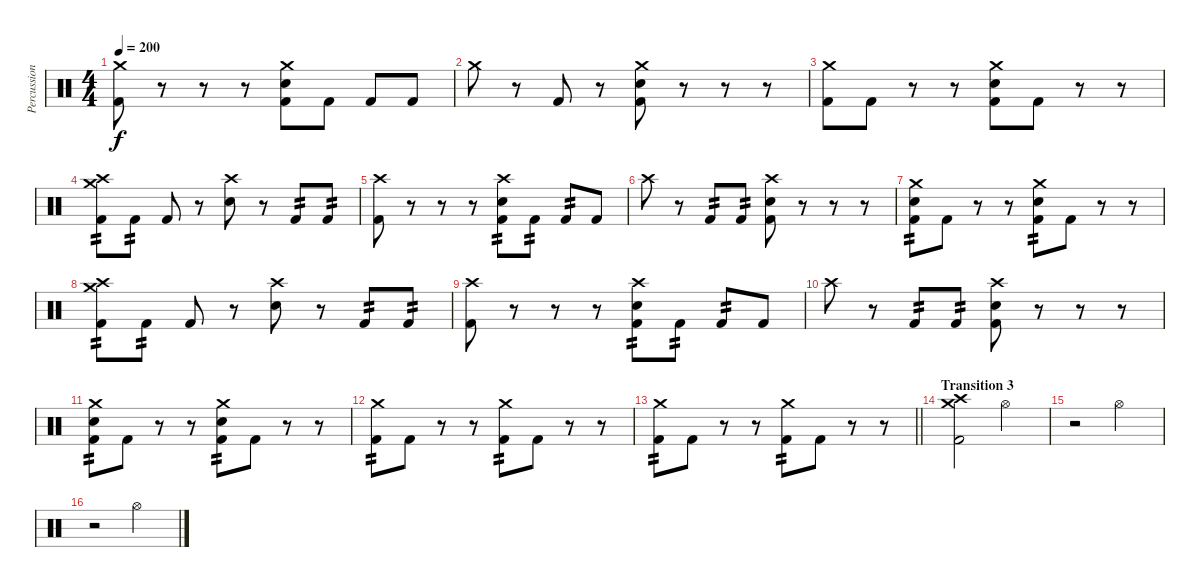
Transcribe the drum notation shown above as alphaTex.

\track ("Percussion" "Percussion") {instrument percussion}
\staff {score}
\articulation defaults
\ts (4 4)
\tempo 200
\clef neutral
\ks c
("Crash medium (hit)" "Kick (hit) 2").8{dy f} r.8 r.8 r.8 ("Crash medium (hit)" "Electric Snare (hit)" "Kick (hit) 2").8 "Kick (hit) 2".8 "Kick (hit) 2".8 "Kick (hit) 2".8 |
"Crash medium (hit)".8 r.8 "Kick (hit) 2".8 r.8 ("Crash medium (hit)" "Electric Snare (hit)" "Kick (hit) 2").8 r.8 r.8 r.8 |
("Crash medium (hit)" "Kick (hit) 2").8 "Kick (hit) 2".8 r.8 r.8 ("Crash medium (hit)" "Electric Snare (hit)" "Kick (hit) 2").8 "Kick (hit) 2".8 r.8 r.8 |
("Crash medium (hit)" "Crash high (hit)" "Kick (hit) 2").8{tp 2} "Kick (hit) 2".8{tp 2} "Kick (hit) 2".8 r.8 ("Crash high (hit)" "Electric Snare (hit)").8 r.8 "Kick (hit) 2".8{tp 2} "Kick (hit) 2".8{tp 2} |
("Crash high (hit)" "Kick (hit) 2").8 r.8 r.8 r.8 ("Crash high (hit)" "Electric Snare (hit)" "Kick (hit) 2").8{tp 2} "Kick (hit) 2".8{tp 2} "Kick (hit) 2".8{tp 2} "Kick (hit) 2".8 |
"Crash high (hit)".8 r.8 "Kick (hit) 2".8{tp 2} "Kick (hit) 2".8{tp 2} ("Crash high (hit)" "Electric Snare (hit)" "Kick (hit) 2").8 r.8 r.8 r.8 |
("Crash medium (hit)" "Electric Snare (hit)" "Kick (hit) 2").8{tp 2} "Kick (hit) 2".8 r.8 r.8 ("Crash medium (hit)" "Electric Snare (hit)" "Kick (hit) 2").8{tp 2} "Kick (hit) 2".8 r.8 r.8 |
("Crash medium (hit)" "Crash high (hit)" "Kick (hit) 2").8{tp 2} "Kick (hit) 2".8{tp 2} "Kick (hit) 2".8 r.8 ("Crash high (hit)" "Electric Snare (hit)").8 r.8 "Kick (hit) 2".8{tp 2} "Kick (hit) 2".8{tp 2} |
("Crash high (hit)" "Kick (hit) 2").8 r.8 r.8 r.8 ("Crash high (hit)" "Electric Snare (hit)" "Kick (hit) 2").8{tp 2} "Kick (hit) 2".8{tp 2} "Kick (hit) 2".8{tp 2} "Kick (hit) 2".8 |
"Crash high (hit)".8 r.8 "Kick (hit) 2".8{tp 2} "Kick (hit) 2".8{tp 2} ("Crash high (hit)" "Electric Snare (hit)" "Kick (hit) 2").8 r.8 r.8 r.8 |
("Crash medium (hit)" "Electric Snare (hit)" "Kick (hit) 2").8{tp 2} "Kick (hit) 2".8 r.8 r.8 ("Crash medium (hit)" "Electric Snare (hit)" "Kick (hit) 2").8{tp 2} "Kick (hit) 2".8 r.8 r.8 |
("Crash medium (hit)" "Kick (hit) 2").8{tp 2} "Kick (hit) 2".8 r.8 r.8 ("Crash medium (hit)" "Kick (hit) 2").8{tp 2} "Kick (hit) 2".8 r.8 r.8 |
\barLineRight lightlight
("Crash medium (hit)" "Kick (hit) 2").8{tp 2} "Kick (hit) 2".8 r.8 r.8 ("Crash medium (hit)" "Kick (hit) 2").8{tp 2} "Kick (hit) 2".8 r.8 r.8 |
\section ("" "Transition 3")
("Crash high (hit)" "Crash medium (hit)" "Kick (hit) 2").2 "Hi-Hat (open)".2 |
r.2 "Hi-Hat (open)".2 |
r.2 "Hi-Hat (open)".2
